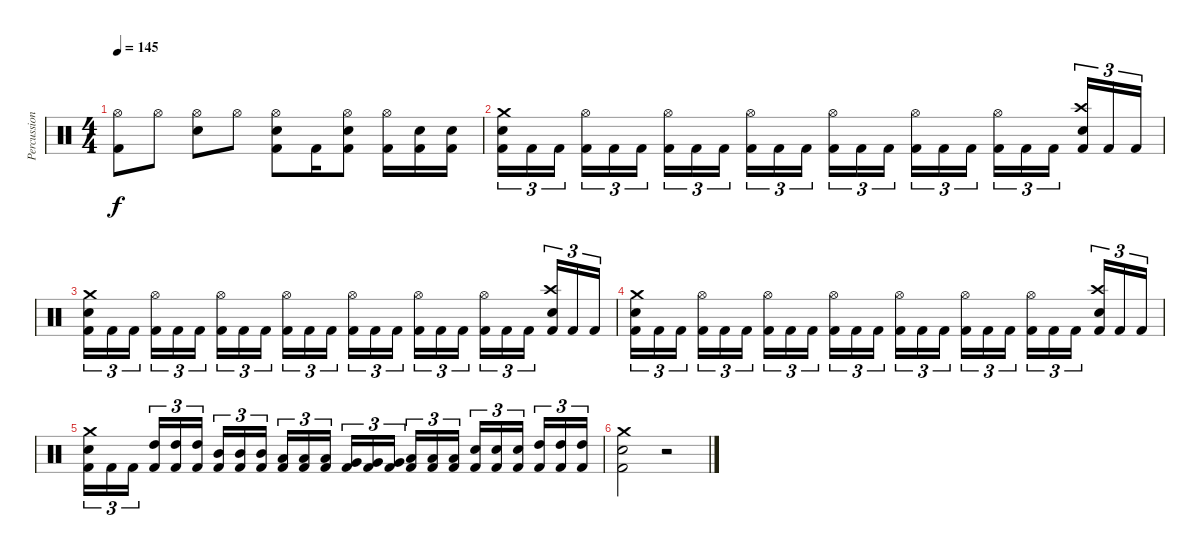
\track ("Percussions" "Percussion") {instrument percussion}
\staff {score}
\articulation defaults
\ts (4 4)
\tempo 145
\clef neutral
\ks c
("Hi-Hat (open)" "Kick (hit) 2").8{dy f} "Hi-Hat (open)".8 ("Hi-Hat (open)" "Electric Snare (hit)").8 "Hi-Hat (open)".8 ("Hi-Hat (open)" "Electric Snare (hit)" "Kick (hit) 2").8 "Kick (hit) 2".16 ("Hi-Hat (open)" "Electric Snare (hit)" "Kick (hit) 2").8 ("Hi-Hat (open)" "Kick (hit) 2").16 ("Electric Snare (hit)" "Kick (hit) 2").16 ("Electric Snare (hit)" "Kick (hit) 2").16 |
("Crash medium (hit)" "Electric Snare (hit)" "Kick (hit) 2").16{tu (3 2)} "Kick (hit) 2".16{tu (3 2)} "Kick (hit) 2".16{tu (3 2) beam splitsecondary} ("Hi-Hat (open)" "Kick (hit) 2").16{tu (3 2)} "Kick (hit) 2".16{tu (3 2)} "Kick (hit) 2".16{tu (3 2)} ("Hi-Hat (open)" "Kick (hit) 2").16{tu (3 2)} "Kick (hit) 2".16{tu (3 2)} "Kick (hit) 2".16{tu (3 2) beam splitsecondary} ("Hi-Hat (open)" "Kick (hit) 2").16{tu (3 2)} "Kick (hit) 2".16{tu (3 2)} "Kick (hit) 2".16{tu (3 2)} ("Hi-Hat (open)" "Kick (hit) 2").16{tu (3 2)} "Kick (hit) 2".16{tu (3 2)} "Kick (hit) 2".16{tu (3 2) beam splitsecondary} ("Hi-Hat (open)" "Kick (hit) 2").16{tu (3 2)} "Kick (hit) 2".16{tu (3 2)} "Kick (hit) 2".16{tu (3 2)} ("Hi-Hat (open)" "Kick (hit) 2").16{tu (3 2)} "Kick (hit) 2".16{tu (3 2)} "Kick (hit) 2".16{tu (3 2) beam splitsecondary} ("Crash high (hit)" "Snare (hit) 2" "Kick (hit) 2").16{tu (3 2)} "Kick (hit) 2".16{tu (3 2)} "Kick (hit) 2".16{tu (3 2)} |
("Crash medium (hit)" "Electric Snare (hit)" "Kick (hit) 2").16{tu (3 2)} "Kick (hit) 2".16{tu (3 2)} "Kick (hit) 2".16{tu (3 2) beam splitsecondary} ("Hi-Hat (open)" "Kick (hit) 2").16{tu (3 2)} "Kick (hit) 2".16{tu (3 2)} "Kick (hit) 2".16{tu (3 2)} ("Hi-Hat (open)" "Kick (hit) 2").16{tu (3 2)} "Kick (hit) 2".16{tu (3 2)} "Kick (hit) 2".16{tu (3 2) beam splitsecondary} ("Hi-Hat (open)" "Kick (hit) 2").16{tu (3 2)} "Kick (hit) 2".16{tu (3 2)} "Kick (hit) 2".16{tu (3 2)} ("Hi-Hat (open)" "Kick (hit) 2").16{tu (3 2)} "Kick (hit) 2".16{tu (3 2)} "Kick (hit) 2".16{tu (3 2) beam splitsecondary} ("Hi-Hat (open)" "Kick (hit) 2").16{tu (3 2)} "Kick (hit) 2".16{tu (3 2)} "Kick (hit) 2".16{tu (3 2)} ("Hi-Hat (open)" "Kick (hit) 2").16{tu (3 2)} "Kick (hit) 2".16{tu (3 2)} "Kick (hit) 2".16{tu (3 2) beam splitsecondary} ("Crash high (hit)" "Snare (hit) 2" "Kick (hit) 2").16{tu (3 2)} "Kick (hit) 2".16{tu (3 2)} "Kick (hit) 2".16{tu (3 2)} |
("Crash medium (hit)" "Electric Snare (hit)" "Kick (hit) 2").16{tu (3 2)} "Kick (hit) 2".16{tu (3 2)} "Kick (hit) 2".16{tu (3 2) beam splitsecondary} ("Hi-Hat (open)" "Kick (hit) 2").16{tu (3 2)} "Kick (hit) 2".16{tu (3 2)} "Kick (hit) 2".16{tu (3 2)} ("Hi-Hat (open)" "Kick (hit) 2").16{tu (3 2)} "Kick (hit) 2".16{tu (3 2)} "Kick (hit) 2".16{tu (3 2) beam splitsecondary} ("Hi-Hat (open)" "Kick (hit) 2").16{tu (3 2)} "Kick (hit) 2".16{tu (3 2)} "Kick (hit) 2".16{tu (3 2)} ("Hi-Hat (open)" "Kick (hit) 2").16{tu (3 2)} "Kick (hit) 2".16{tu (3 2)} "Kick (hit) 2".16{tu (3 2) beam splitsecondary} ("Hi-Hat (open)" "Kick (hit) 2").16{tu (3 2)} "Kick (hit) 2".16{tu (3 2)} "Kick (hit) 2".16{tu (3 2)} ("Hi-Hat (open)" "Kick (hit) 2").16{tu (3 2)} "Kick (hit) 2".16{tu (3 2)} "Kick (hit) 2".16{tu (3 2) beam splitsecondary} ("Crash high (hit)" "Snare (hit) 2" "Kick (hit) 2").16{tu (3 2)} "Kick (hit) 2".16{tu (3 2)} "Kick (hit) 2".16{tu (3 2)} |
("Crash medium (hit)" "Electric Snare (hit)" "Kick (hit) 2").16{tu (3 2)} "Kick (hit) 2".16{tu (3 2)} "Kick (hit) 2".16{tu (3 2) beam splitsecondary} ("High Tom (hit)" "Kick (hit) 2").16{tu (3 2)} ("High Tom (hit)" "Kick (hit) 2").16{tu (3 2)} ("High Tom (hit)" "Kick (hit) 2").16{tu (3 2)} ("Mid Tom (hit)" "Kick (hit) 2").16{tu (3 2)} ("Mid Tom (hit)" "Kick (hit) 2").16{tu (3 2)} ("Mid Tom (hit)" "Kick (hit) 2").16{tu (3 2) beam splitsecondary} ("Low Tom (hit)" "Kick (hit) 2").16{tu (3 2)} ("Low Tom (hit)" "Kick (hit) 2").16{tu (3 2)} ("Low Tom (hit)" "Kick (hit) 2").16{tu (3 2)} ("Very Low Tom (hit)" "Kick (hit) 2").16{tu (3 2)} ("Very Low Tom (hit)" "Kick (hit) 2").16{tu (3 2)} ("Very Low Tom (hit)" "Kick (hit) 2").16{tu (3 2) beam splitsecondary} ("Low Floor Tom (hit)" "Kick (hit) 2").16{tu (3 2)} ("Low Floor Tom (hit)" "Kick (hit) 2").16{tu (3 2)} ("Low Floor Tom (hit)" "Kick (hit) 2").16{tu (3 2)} ("Electric Snare (hit)" "Kick (hit) 2").16{tu (3 2)} ("Electric Snare (hit)" "Kick (hit) 2").16{tu (3 2)} ("Electric Snare (hit)" "Kick (hit) 2").16{tu (3 2) beam splitsecondary} ("High Tom (hit)" "Kick (hit) 2").16{tu (3 2)} ("High Tom (hit)" "Kick (hit) 2").16{tu (3 2)} ("High Tom (hit)" "Kick (hit) 2").16{tu (3 2)} |
("Crash medium (hit)" "Electric Snare (hit)" "Kick (hit) 2").2 r.2
